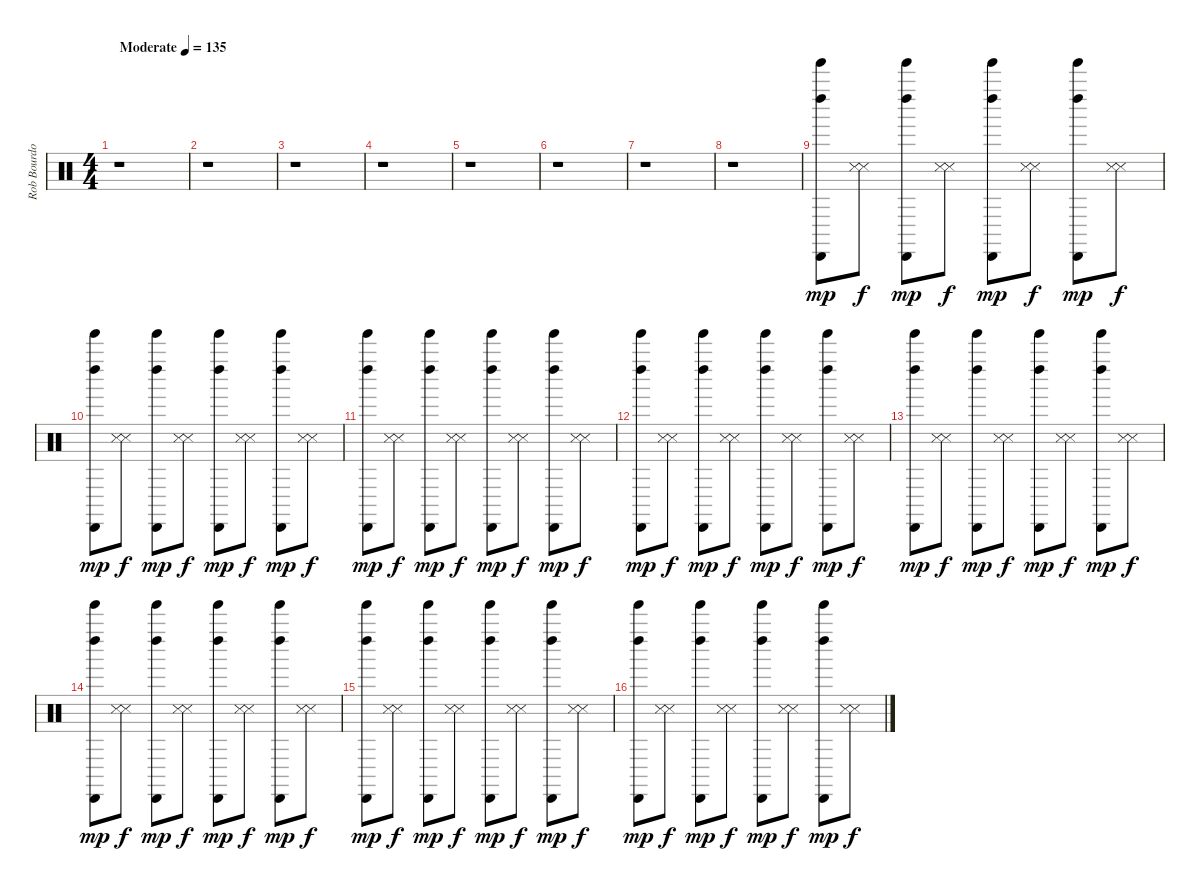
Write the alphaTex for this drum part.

\track ("Rob Bourdon - Beats & Drums" "Rob Bourdo") {instrument percussion}
\staff {score}
\articulation defaults
\ts (4 4)
\tempo (135 "Moderate")
\clef neutral
\ks c
r.1{dy mp} |
r.1 |
r.1 |
r.1 |
r.1 |
r.1 |
r.1 |
r.1 |
("Tinkle Bell (hit)" "Cabasa (hit)" "Left Maraca (hit)").8 ("Metronome (hit)" "Snare (side stick) 3").8{dy f} ("Tinkle Bell (hit)" "Cabasa (hit)" "Left Maraca (hit)").8{dy mp} ("Metronome (hit)" "Snare (side stick) 3").8{dy f} ("Tinkle Bell (hit)" "Cabasa (hit)" "Left Maraca (hit)").8{dy mp} ("Metronome (hit)" "Snare (side stick) 3").8{dy f} ("Tinkle Bell (hit)" "Cabasa (hit)" "Left Maraca (hit)").8{dy mp} ("Metronome (hit)" "Snare (side stick) 3").8{dy f} |
("Tinkle Bell (hit)" "Cabasa (hit)" "Left Maraca (hit)").8{dy mp} ("Metronome (hit)" "Snare (side stick) 3").8{dy f} ("Tinkle Bell (hit)" "Cabasa (hit)" "Left Maraca (hit)").8{dy mp} ("Metronome (hit)" "Snare (side stick) 3").8{dy f} ("Tinkle Bell (hit)" "Cabasa (hit)" "Left Maraca (hit)").8{dy mp} ("Metronome (hit)" "Snare (side stick) 3").8{dy f} ("Tinkle Bell (hit)" "Cabasa (hit)" "Left Maraca (hit)").8{dy mp} ("Metronome (hit)" "Snare (side stick) 3").8{dy f} |
("Tinkle Bell (hit)" "Cabasa (hit)" "Left Maraca (hit)").8{dy mp} ("Metronome (hit)" "Snare (side stick) 3").8{dy f} ("Tinkle Bell (hit)" "Cabasa (hit)" "Left Maraca (hit)").8{dy mp} ("Metronome (hit)" "Snare (side stick) 3").8{dy f} ("Tinkle Bell (hit)" "Cabasa (hit)" "Left Maraca (hit)").8{dy mp} ("Metronome (hit)" "Snare (side stick) 3").8{dy f} ("Tinkle Bell (hit)" "Cabasa (hit)" "Left Maraca (hit)").8{dy mp} ("Metronome (hit)" "Snare (side stick) 3").8{dy f} |
("Tinkle Bell (hit)" "Cabasa (hit)" "Left Maraca (hit)").8{dy mp} ("Metronome (hit)" "Snare (side stick) 3").8{dy f} ("Tinkle Bell (hit)" "Cabasa (hit)" "Left Maraca (hit)").8{dy mp} ("Metronome (hit)" "Snare (side stick) 3").8{dy f} ("Tinkle Bell (hit)" "Cabasa (hit)" "Left Maraca (hit)").8{dy mp} ("Metronome (hit)" "Snare (side stick) 3").8{dy f} ("Tinkle Bell (hit)" "Cabasa (hit)" "Left Maraca (hit)").8{dy mp} ("Metronome (hit)" "Snare (side stick) 3").8{dy f} |
("Tinkle Bell (hit)" "Cabasa (hit)" "Left Maraca (hit)").8{dy mp} ("Metronome (hit)" "Snare (side stick) 3").8{dy f} ("Tinkle Bell (hit)" "Cabasa (hit)" "Left Maraca (hit)").8{dy mp} ("Metronome (hit)" "Snare (side stick) 3").8{dy f} ("Tinkle Bell (hit)" "Cabasa (hit)" "Left Maraca (hit)").8{dy mp} ("Metronome (hit)" "Snare (side stick) 3").8{dy f} ("Tinkle Bell (hit)" "Cabasa (hit)" "Left Maraca (hit)").8{dy mp} ("Metronome (hit)" "Snare (side stick) 3").8{dy f} |
("Tinkle Bell (hit)" "Cabasa (hit)" "Left Maraca (hit)").8{dy mp} ("Metronome (hit)" "Snare (side stick) 3").8{dy f} ("Tinkle Bell (hit)" "Cabasa (hit)" "Left Maraca (hit)").8{dy mp} ("Metronome (hit)" "Snare (side stick) 3").8{dy f} ("Tinkle Bell (hit)" "Cabasa (hit)" "Left Maraca (hit)").8{dy mp} ("Metronome (hit)" "Snare (side stick) 3").8{dy f} ("Tinkle Bell (hit)" "Cabasa (hit)" "Left Maraca (hit)").8{dy mp} ("Metronome (hit)" "Snare (side stick) 3").8{dy f} |
("Tinkle Bell (hit)" "Cabasa (hit)" "Left Maraca (hit)").8{dy mp} ("Metronome (hit)" "Snare (side stick) 3").8{dy f} ("Tinkle Bell (hit)" "Cabasa (hit)" "Left Maraca (hit)").8{dy mp} ("Metronome (hit)" "Snare (side stick) 3").8{dy f} ("Tinkle Bell (hit)" "Cabasa (hit)" "Left Maraca (hit)").8{dy mp} ("Metronome (hit)" "Snare (side stick) 3").8{dy f} ("Tinkle Bell (hit)" "Cabasa (hit)" "Left Maraca (hit)").8{dy mp} ("Metronome (hit)" "Snare (side stick) 3").8{dy f} |
("Tinkle Bell (hit)" "Cabasa (hit)" "Left Maraca (hit)").8{dy mp} ("Metronome (hit)" "Snare (side stick) 3").8{dy f} ("Tinkle Bell (hit)" "Cabasa (hit)" "Left Maraca (hit)").8{dy mp} ("Metronome (hit)" "Snare (side stick) 3").8{dy f} ("Tinkle Bell (hit)" "Cabasa (hit)" "Left Maraca (hit)").8{dy mp} ("Metronome (hit)" "Snare (side stick) 3").8{dy f} ("Tinkle Bell (hit)" "Cabasa (hit)" "Left Maraca (hit)").8{dy mp} ("Metronome (hit)" "Snare (side stick) 3").8{dy f}
